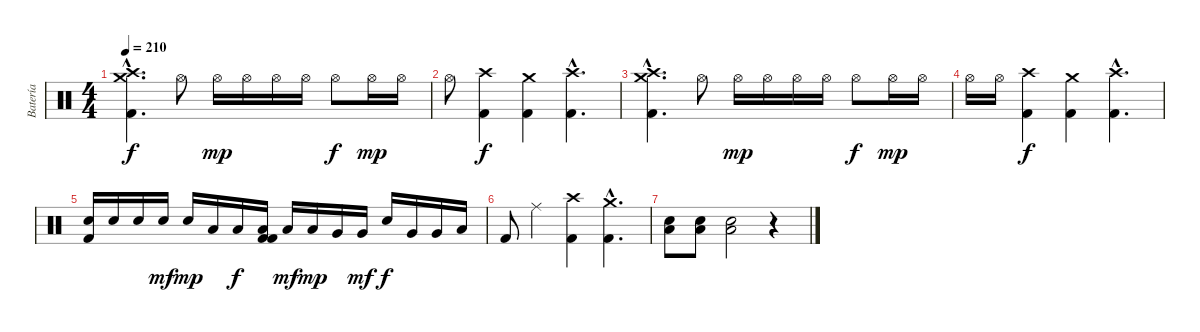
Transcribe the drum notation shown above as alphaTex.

\track ("Batería" "Batería") {instrument percussion}
\staff {score}
\articulation defaults
\ts (4 4)
\tempo 210
\clef neutral
\ks c
("Crash medium (hit)"{hac} "Crash high (hit)"{hac} "Kick (hit) 2"{hac}).4{d dy f} "Hi-Hat (open)".8 "Hi-Hat (open)".16{dy mp} "Hi-Hat (open)".16 "Hi-Hat (open)".16 "Hi-Hat (open)".16 "Hi-Hat (open)".8{dy f} "Hi-Hat (open)".16{dy mp} "Hi-Hat (open)".16 |
"Hi-Hat (open)".8 ("Crash high (hit)" "Kick (hit) 2").4{dy f} ("Crash medium (hit)" "Kick (hit) 2").4 ("Crash high (hit)"{hac} "Kick (hit) 2"{hac}).4{d} |
("Crash medium (hit)"{hac} "Crash high (hit)"{hac} "Kick (hit) 2"{hac}).4{d} "Hi-Hat (open)".8 "Hi-Hat (open)".16{dy mp} "Hi-Hat (open)".16 "Hi-Hat (open)".16 "Hi-Hat (open)".16 "Hi-Hat (open)".8{dy f} "Hi-Hat (open)".16{dy mp} "Hi-Hat (open)".16 |
"Hi-Hat (open)".16 "Hi-Hat (open)".16 ("Crash high (hit)" "Kick (hit) 2").4{dy f} ("Crash medium (hit)" "Kick (hit) 2").4 ("Crash high (hit)"{hac} "Kick (hit) 2"{hac}).4{d} |
("Electric Snare (hit)" "Kick (hit) 2").16 "Electric Snare (hit)".16 "Electric Snare (hit)".16 "Electric Snare (hit)".16{dy mf} "Electric Snare (hit)".16{dy mp} "Low Tom (hit)".16 "Low Tom (hit)".16{dy f} ("Low Tom (hit)" "Kick (hit) 2" "Kick (hit) 2").16 "Low Tom (hit)".16{dy mf} "Low Tom (hit)".16{dy mp} "Very Low Tom (hit)".16 "Very Low Tom (hit)".16{dy mf} "Electric Snare (hit)".16{dy f} "Very Low Tom (hit)".16 "Very Low Tom (hit)".16 "Low Floor Tom (hit)".16 |
"Kick (hit) 2".8 "Ride (middle)".4 ("Crash high (hit)" "Kick (hit) 2").4 ("Crash medium (hit)"{hac} "Kick (hit) 2"{hac}).4{d} |
("Electric Snare (hit)" "Low Floor Tom (hit)").8 ("Electric Snare (hit)" "Low Floor Tom (hit)").8 ("Electric Snare (hit)" "Low Floor Tom (hit)").2 r.4
